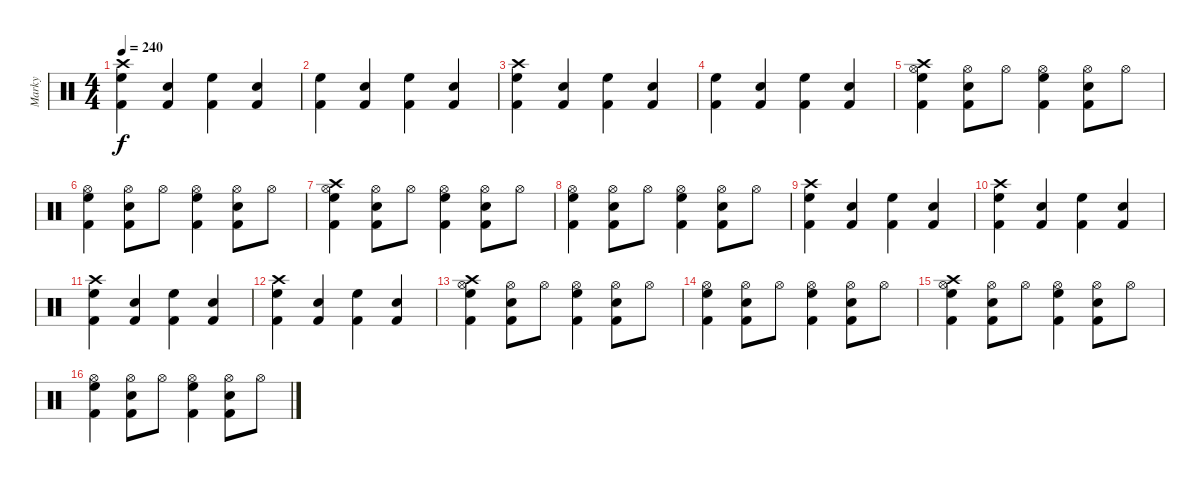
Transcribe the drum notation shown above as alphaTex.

\track ("Marky" "Marky") {instrument percussion}
\staff {score}
\articulation defaults
\ts (4 4)
\tempo 240
\clef neutral
\ks c
("Crash high (hit)" "High Floor Tom (hit)" "Kick (hit) 2").4{dy f} ("Electric Snare (hit)" "Kick (hit) 2").4 ("High Floor Tom (hit)" "Kick (hit) 2").4 ("Electric Snare (hit)" "Kick (hit) 2").4 |
("High Floor Tom (hit)" "Kick (hit) 2").4 ("Electric Snare (hit)" "Kick (hit) 2").4 ("High Floor Tom (hit)" "Kick (hit) 2").4 ("Electric Snare (hit)" "Kick (hit) 2").4 |
("Crash high (hit)" "High Floor Tom (hit)" "Kick (hit) 2").4 ("Electric Snare (hit)" "Kick (hit) 2").4 ("High Floor Tom (hit)" "Kick (hit) 2").4 ("Electric Snare (hit)" "Kick (hit) 2").4 |
("High Floor Tom (hit)" "Kick (hit) 2").4 ("Electric Snare (hit)" "Kick (hit) 2").4 ("High Floor Tom (hit)" "Kick (hit) 2").4 ("Electric Snare (hit)" "Kick (hit) 2").4 |
("Crash high (hit)" "Hi-Hat (open)" "High Floor Tom (hit)" "Kick (hit) 2").4 ("Hi-Hat (open)" "Electric Snare (hit)" "Kick (hit) 2").8 "Hi-Hat (open)".8 ("Hi-Hat (open)" "High Floor Tom (hit)" "Kick (hit) 2").4 ("Hi-Hat (open)" "Electric Snare (hit)" "Kick (hit) 2").8 "Hi-Hat (open)".8 |
("Hi-Hat (open)" "High Floor Tom (hit)" "Kick (hit) 2").4 ("Hi-Hat (open)" "Electric Snare (hit)" "Kick (hit) 2").8 "Hi-Hat (open)".8 ("Hi-Hat (open)" "High Floor Tom (hit)" "Kick (hit) 2").4 ("Hi-Hat (open)" "Electric Snare (hit)" "Kick (hit) 2").8 "Hi-Hat (open)".8 |
("Crash high (hit)" "Hi-Hat (open)" "High Floor Tom (hit)" "Kick (hit) 2").4 ("Hi-Hat (open)" "Electric Snare (hit)" "Kick (hit) 2").8 "Hi-Hat (open)".8 ("Hi-Hat (open)" "High Floor Tom (hit)" "Kick (hit) 2").4 ("Hi-Hat (open)" "Electric Snare (hit)" "Kick (hit) 2").8 "Hi-Hat (open)".8 |
("Hi-Hat (open)" "High Floor Tom (hit)" "Kick (hit) 2").4 ("Hi-Hat (open)" "Electric Snare (hit)" "Kick (hit) 2").8 "Hi-Hat (open)".8 ("Hi-Hat (open)" "High Floor Tom (hit)" "Kick (hit) 2").4 ("Hi-Hat (open)" "Electric Snare (hit)" "Kick (hit) 2").8 "Hi-Hat (open)".8 |
("Crash high (hit)" "High Floor Tom (hit)" "Kick (hit) 2").4 ("Electric Snare (hit)" "Kick (hit) 2").4 ("High Floor Tom (hit)" "Kick (hit) 2").4 ("Electric Snare (hit)" "Kick (hit) 2").4 |
("Crash high (hit)" "High Floor Tom (hit)" "Kick (hit) 2").4 ("Electric Snare (hit)" "Kick (hit) 2").4 ("High Floor Tom (hit)" "Kick (hit) 2").4 ("Electric Snare (hit)" "Kick (hit) 2").4 |
("Crash high (hit)" "High Floor Tom (hit)" "Kick (hit) 2").4 ("Electric Snare (hit)" "Kick (hit) 2").4 ("High Floor Tom (hit)" "Kick (hit) 2").4 ("Electric Snare (hit)" "Kick (hit) 2").4 |
("Crash high (hit)" "High Floor Tom (hit)" "Kick (hit) 2").4 ("Electric Snare (hit)" "Kick (hit) 2").4 ("High Floor Tom (hit)" "Kick (hit) 2").4 ("Electric Snare (hit)" "Kick (hit) 2").4 |
("Crash high (hit)" "Hi-Hat (open)" "High Floor Tom (hit)" "Kick (hit) 2").4 ("Hi-Hat (open)" "Electric Snare (hit)" "Kick (hit) 2").8 "Hi-Hat (open)".8 ("Hi-Hat (open)" "High Floor Tom (hit)" "Kick (hit) 2").4 ("Hi-Hat (open)" "Electric Snare (hit)" "Kick (hit) 2").8 "Hi-Hat (open)".8 |
("Hi-Hat (open)" "High Floor Tom (hit)" "Kick (hit) 2").4 ("Hi-Hat (open)" "Electric Snare (hit)" "Kick (hit) 2").8 "Hi-Hat (open)".8 ("Hi-Hat (open)" "High Floor Tom (hit)" "Kick (hit) 2").4 ("Hi-Hat (open)" "Electric Snare (hit)" "Kick (hit) 2").8 "Hi-Hat (open)".8 |
("Crash high (hit)" "Hi-Hat (open)" "High Floor Tom (hit)" "Kick (hit) 2").4 ("Hi-Hat (open)" "Electric Snare (hit)" "Kick (hit) 2").8 "Hi-Hat (open)".8 ("Hi-Hat (open)" "High Floor Tom (hit)" "Kick (hit) 2").4 ("Hi-Hat (open)" "Electric Snare (hit)" "Kick (hit) 2").8 "Hi-Hat (open)".8 |
("Hi-Hat (open)" "High Floor Tom (hit)" "Kick (hit) 2").4 ("Hi-Hat (open)" "Electric Snare (hit)" "Kick (hit) 2").8 "Hi-Hat (open)".8 ("Hi-Hat (open)" "High Floor Tom (hit)" "Kick (hit) 2").4 ("Hi-Hat (open)" "Electric Snare (hit)" "Kick (hit) 2").8 "Hi-Hat (open)".8
